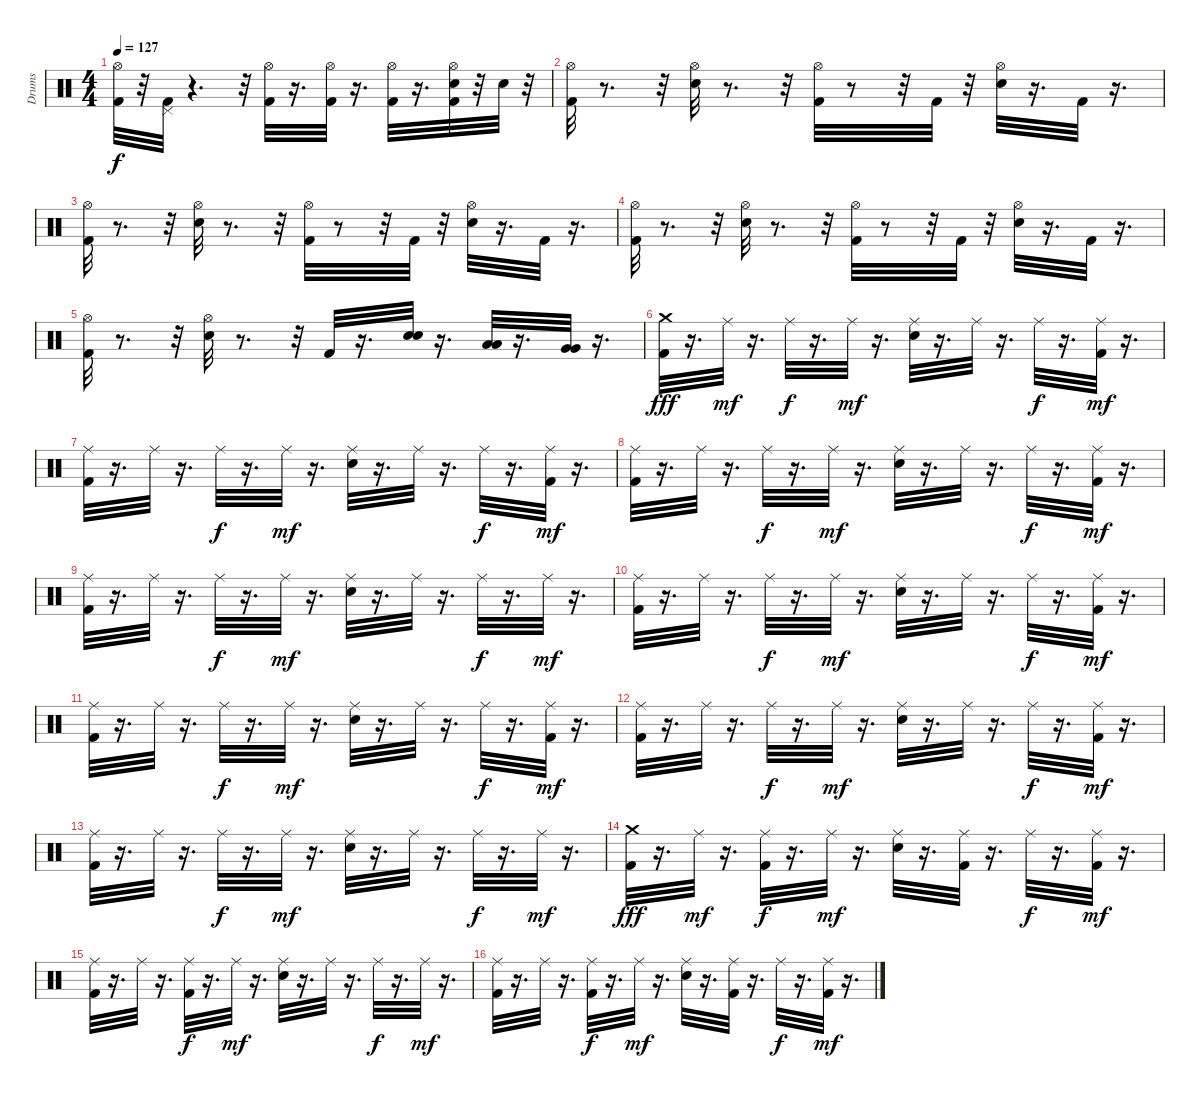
\track ("Drums" "Drums") {instrument percussion}
\staff {score}
\articulation defaults
\ts (4 4)
\tempo 127
\clef neutral
\ks c
("Hi-Hat (open)" "Kick (hit) 2").32{dy f} r.32 ("Pedal Hi-Hat (hit)" "Kick (hit) 2").32 r.4{d} r.32 ("Kick (hit) 2" "Hi-Hat (open)").32 r.16{d} ("Hi-Hat (open)" "Kick (hit) 2").32 r.16{d} ("Hi-Hat (open)" "Kick (hit) 2").32 r.16{d} ("Hi-Hat (open)" "Kick (hit) 2" "Snare (hit) 2").32 r.32 "Snare (hit) 2".32 r.32 |
("Hi-Hat (open)" "Kick (hit) 2").32 r.8{d} r.32 ("Hi-Hat (open)" "Snare (hit) 2").32 r.8{d} r.32 ("Hi-Hat (open)" "Kick (hit) 2").32 r.8 r.32 "Kick (hit) 2".32 r.32 ("Hi-Hat (open)" "Snare (hit) 2").32 r.16{d} "Kick (hit) 2".32 r.16{d} |
("Hi-Hat (open)" "Kick (hit) 2").32 r.8{d} r.32 ("Hi-Hat (open)" "Snare (hit) 2").32 r.8{d} r.32 ("Hi-Hat (open)" "Kick (hit) 2").32 r.8 r.32 "Kick (hit) 2".32 r.32 ("Hi-Hat (open)" "Snare (hit) 2").32 r.16{d} "Kick (hit) 2".32 r.16{d} |
("Kick (hit) 2" "Hi-Hat (open)").32 r.8{d} r.32 ("Hi-Hat (open)" "Snare (hit) 2").32 r.8{d} r.32 ("Hi-Hat (open)" "Kick (hit) 2").32 r.8 r.32 "Kick (hit) 2".32 r.32 ("Hi-Hat (open)" "Snare (hit) 2").32 r.16{d} "Kick (hit) 2".32 r.16{d} |
("Hi-Hat (open)" "Kick (hit) 2").32 r.8{d} r.32 ("Hi-Hat (open)" "Snare (hit) 2").32 r.8{d} r.32 "Kick (hit) 2".32 r.16{d} ("Snare (hit) 2" "Snare (hit) 2").32 r.16{d} ("Low Tom (hit)" "Low Tom (hit)").32 r.16{d} ("Very Low Tom (hit)" "Very Low Tom (hit)").32 r.16{d} |
("Kick (hit) 2" "Crash medium (hit)").32{dy fff} r.16{d} "Ride (middle)".32{dy mf} r.16{d} "Ride (middle)".32{dy f} r.16{d} "Ride (middle)".32{dy mf} r.16{d} ("Ride (middle)" "Snare (hit) 2").32 r.16{d} "Ride (middle)".32 r.16{d} "Ride (middle)".32{dy f} r.16{d} ("Ride (middle)" "Kick (hit) 2").32{dy mf} r.16{d} |
("Ride (middle)" "Kick (hit) 2").32 r.16{d} "Ride (middle)".32 r.16{d} "Ride (middle)".32{dy f} r.16{d} "Ride (middle)".32{dy mf} r.16{d} ("Ride (middle)" "Snare (hit) 2").32 r.16{d} "Ride (middle)".32 r.16{d} "Ride (middle)".32{dy f} r.16{d} ("Ride (middle)" "Kick (hit) 2").32{dy mf} r.16{d} |
("Ride (middle)" "Kick (hit) 2").32 r.16{d} "Ride (middle)".32 r.16{d} "Ride (middle)".32{dy f} r.16{d} "Ride (middle)".32{dy mf} r.16{d} ("Ride (middle)" "Snare (hit) 2").32 r.16{d} "Ride (middle)".32 r.16{d} "Ride (middle)".32{dy f} r.16{d} ("Ride (middle)" "Kick (hit) 2").32{dy mf} r.16{d} |
("Ride (middle)" "Kick (hit) 2").32 r.16{d} "Ride (middle)".32 r.16{d} "Ride (middle)".32{dy f} r.16{d} "Ride (middle)".32{dy mf} r.16{d} ("Ride (middle)" "Snare (hit) 2").32 r.16{d} "Ride (middle)".32 r.16{d} "Ride (middle)".32{dy f} r.16{d} "Ride (middle)".32{dy mf} r.16{d} |
("Ride (middle)" "Kick (hit) 2").32 r.16{d} "Ride (middle)".32 r.16{d} "Ride (middle)".32{dy f} r.16{d} "Ride (middle)".32{dy mf} r.16{d} ("Ride (middle)" "Snare (hit) 2").32 r.16{d} "Ride (middle)".32 r.16{d} "Ride (middle)".32{dy f} r.16{d} ("Ride (middle)" "Kick (hit) 2").32{dy mf} r.16{d} |
("Ride (middle)" "Kick (hit) 2").32 r.16{d} "Ride (middle)".32 r.16{d} "Ride (middle)".32{dy f} r.16{d} "Ride (middle)".32{dy mf} r.16{d} ("Ride (middle)" "Snare (hit) 2").32 r.16{d} "Ride (middle)".32 r.16{d} "Ride (middle)".32{dy f} r.16{d} ("Ride (middle)" "Kick (hit) 2").32{dy mf} r.16{d} |
("Ride (middle)" "Kick (hit) 2").32 r.16{d} "Ride (middle)".32 r.16{d} "Ride (middle)".32{dy f} r.16{d} "Ride (middle)".32{dy mf} r.16{d} ("Ride (middle)" "Snare (hit) 2").32 r.16{d} "Ride (middle)".32 r.16{d} "Ride (middle)".32{dy f} r.16{d} ("Ride (middle)" "Kick (hit) 2").32{dy mf} r.16{d} |
("Ride (middle)" "Kick (hit) 2").32 r.16{d} "Ride (middle)".32 r.16{d} "Ride (middle)".32{dy f} r.16{d} "Ride (middle)".32{dy mf} r.16{d} ("Ride (middle)" "Snare (hit) 2").32 r.16{d} "Ride (middle)".32 r.16{d} "Ride (middle)".32{dy f} r.16{d} "Ride (middle)".32{dy mf} r.16{d} |
("Kick (hit) 2" "Crash medium (hit)").32{dy fff} r.16{d} "Ride (middle)".32{dy mf} r.16{d} ("Ride (middle)" "Kick (hit) 2").32{dy f} r.16{d} "Ride (middle)".32{dy mf} r.16{d} ("Ride (middle)" "Snare (hit) 2").32 r.16{d} ("Ride (middle)" "Kick (hit) 2").32 r.16{d} "Ride (middle)".32{dy f} r.16{d} ("Ride (middle)" "Kick (hit) 2").32{dy mf} r.16{d} |
("Ride (middle)" "Kick (hit) 2").32 r.16{d} "Ride (middle)".32 r.16{d} ("Ride (middle)" "Kick (hit) 2").32{dy f} r.16{d} "Ride (middle)".32{dy mf} r.16{d} ("Ride (middle)" "Snare (hit) 2").32 r.16{d} "Ride (middle)".32 r.16{d} "Ride (middle)".32{dy f} r.16{d} "Ride (middle)".32{dy mf} r.16{d} |
("Ride (middle)" "Kick (hit) 2").32 r.16{d} "Ride (middle)".32 r.16{d} ("Ride (middle)" "Kick (hit) 2").32{dy f} r.16{d} "Ride (middle)".32{dy mf} r.16{d} ("Ride (middle)" "Snare (hit) 2").32 r.16{d} ("Ride (middle)" "Kick (hit) 2").32 r.16{d} "Ride (middle)".32{dy f} r.16{d} ("Ride (middle)" "Kick (hit) 2").32{dy mf} r.16{d}
